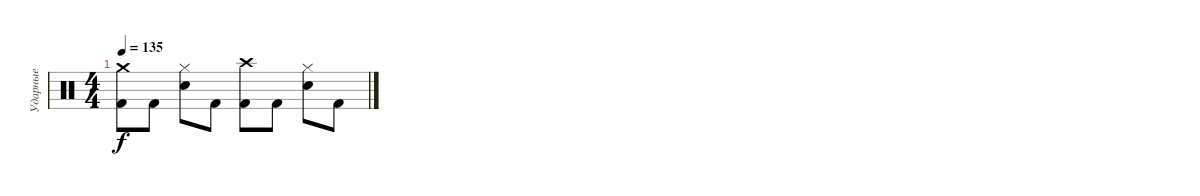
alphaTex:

\track ("Ударные" "Ударные") {solo instrument percussion}
\staff {score}
\articulation defaults
\ts (4 4)
\tempo 135
\clef neutral
\ks c
("Kick (hit) 2" "Crash medium (hit)").8{dy f} "Kick (hit) 2".8 ("Snare (hit) 2" "Hi-Hat (closed)").8 "Kick (hit) 2".8 ("Kick (hit) 2" "Crash high (hit)").8 "Kick (hit) 2".8 ("Snare (hit) 2" "Hi-Hat (closed)").8 "Kick (hit) 2".8
